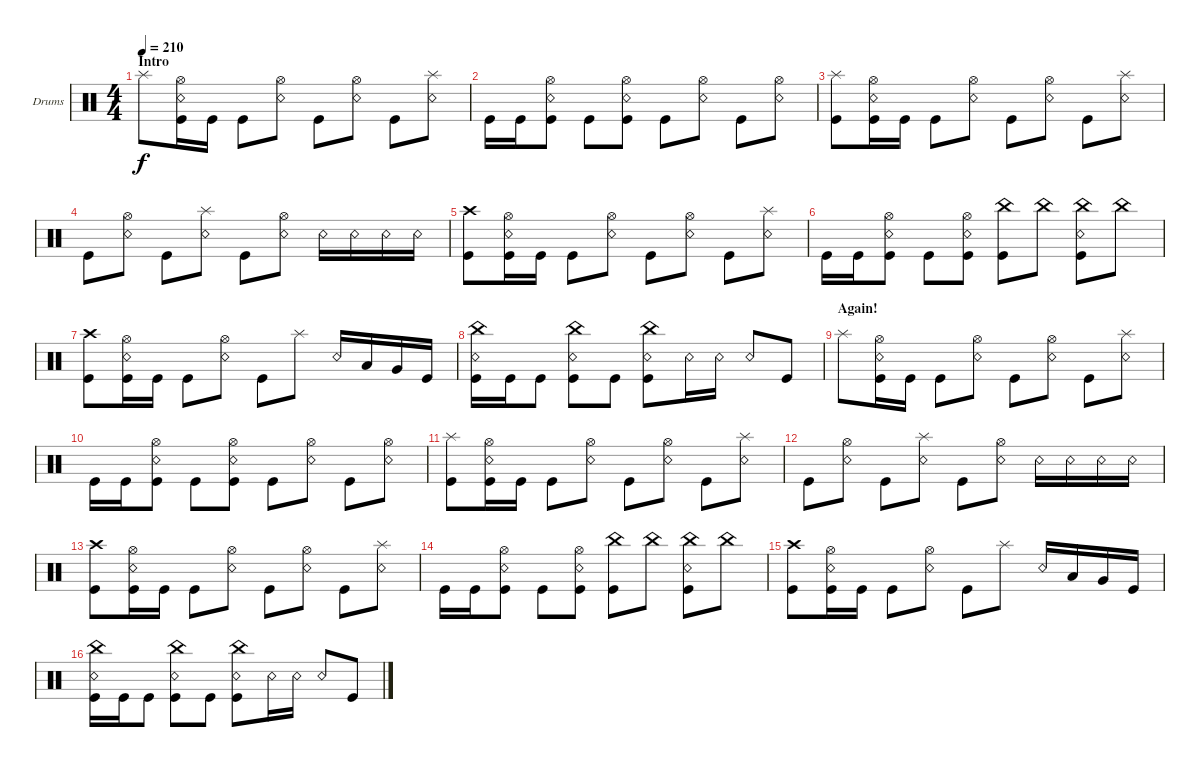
\defaultSystemsLayout 4
\bracketExtendMode groupsimilarinstruments
\firstSystemTrackNameOrientation horizontal
\otherSystemsTrackNameOrientation horizontal
\track ("Drums" "Drums") {instrument percussion}
\staff {score}
\articulation defaults
\ts (4 4)
\section ("" "Intro")
\tempo 210
\clef neutral
\scale
0.474178
\ks c "Splash (hit)".8{dy f}
("Hi-Hat (open)" "Snare (rim shot)" "Kick (hit)").16 "Kick (hit)".16 "Kick (hit)".8 ("Hi-Hat (open)" "Snare (rim shot)").8 "Kick (hit)".8 ("Hi-Hat (open)" "Snare (rim shot)").8 "Kick (hit)".8 ("Splash (hit)" "Snare (rim shot)").8 |
\scale
0.262911 "Kick (hit)".16 "Kick (hit)".16 ("Hi-Hat (open)" "Snare (rim shot)" "Kick (hit)").8 "Kick (hit)".8 ("Hi-Hat (open)" "Snare (rim shot)" "Kick (hit)").8 "Kick (hit)".8 ("Hi-Hat (open)" "Snare (rim shot)").8 "Kick (hit)".8 ("Hi-Hat (open)" "Snare (rim shot)").8 |
\scale
0.262911 ("Kick (hit)" "Splash (hit)").8 ("Hi-Hat (open)" "Snare (rim shot)" "Kick (hit)").16 "Kick (hit)".16 "Kick (hit)".8 ("Hi-Hat (open)" "Snare (rim shot)").8 "Kick (hit)".8 ("Hi-Hat (open)" "Snare (rim shot)").8 "Kick (hit)".8 ("Snare (rim shot)" "Splash (hit)").8 |
\scale
0.333333 "Kick (hit)".8 ("Hi-Hat (open)" "Snare (rim shot)").8 "Kick (hit)".8 ("Snare (rim shot)" "Splash (hit)").8 "Kick (hit)".8 ("Hi-Hat (open)" "Snare (rim shot)").8 "Snare (rim shot)".16 "Snare (rim shot)".16 "Snare (rim shot)".16 "Snare (rim shot)".16 |
\scale
0.333333 ("Kick (hit)" "Crash high (hit)").8 ("Hi-Hat (open)" "Snare (rim shot)" "Kick (hit)").16 "Kick (hit)".16 "Kick (hit)".8 ("Hi-Hat (open)" "Snare (rim shot)").8 "Kick (hit)".8 ("Hi-Hat (open)" "Snare (rim shot)").8 "Kick (hit)".8 ("Snare (rim shot)" "Splash (hit)").8 |
\scale
0.333333 "Kick (hit)".16 "Kick (hit)".16 ("Hi-Hat (open)" "Snare (rim shot)" "Kick (hit)").8 "Kick (hit)".8 ("Hi-Hat (open)" "Snare (rim shot)" "Kick (hit)").8 ("Kick (hit)" "China (hit)").8 "China (hit)".8 ("Kick (hit)" "China (hit)" "Snare (rim shot)").8 "China (hit)".8 |
\scale
0.333333 ("Kick (hit)" "Crash high (hit)").8 ("Hi-Hat (open)" "Snare (rim shot)" "Kick (hit)").16 "Kick (hit)".16 "Kick (hit)".8 ("Hi-Hat (open)" "Snare (rim shot)").8 "Kick (hit)".8 "Splash (hit)".8 "Snare (rim shot)".16 "Low Tom (hit)".16 "Very Low Tom (hit)".16 "Kick (hit)".16 |
\scale
0.333333 ("Kick (hit)" "China (hit)" "Snare (rim shot)").16 "Kick (hit)".16 "Kick (hit)".8 ("Kick (hit)" "China (hit)" "Snare (rim shot)").8 "Kick (hit)".8 ("Kick (hit)" "China (hit)" "Snare (rim shot)").8 "Snare (rim shot)".16 "Snare (rim shot)".16 "Snare (rim shot)".8 "Kick (hit)".8 |
\section ("" "Again!")
\scale
0.333333 "Splash (hit)".8 ("Hi-Hat (open)" "Snare (rim shot)" "Kick (hit)").16 "Kick (hit)".16 "Kick (hit)".8 ("Hi-Hat (open)" "Snare (rim shot)").8 "Kick (hit)".8 ("Hi-Hat (open)" "Snare (rim shot)").8 "Kick (hit)".8 ("Splash (hit)" "Snare (rim shot)").8 |
\scale
0.333333 "Kick (hit)".16 "Kick (hit)".16 ("Hi-Hat (open)" "Snare (rim shot)" "Kick (hit)").8 "Kick (hit)".8 ("Hi-Hat (open)" "Snare (rim shot)" "Kick (hit)").8 "Kick (hit)".8 ("Hi-Hat (open)" "Snare (rim shot)").8 "Kick (hit)".8 ("Hi-Hat (open)" "Snare (rim shot)").8 |
\scale
0.333333 ("Kick (hit)" "Splash (hit)").8 ("Hi-Hat (open)" "Snare (rim shot)" "Kick (hit)").16 "Kick (hit)".16 "Kick (hit)".8 ("Hi-Hat (open)" "Snare (rim shot)").8 "Kick (hit)".8 ("Hi-Hat (open)" "Snare (rim shot)").8 "Kick (hit)".8 ("Snare (rim shot)" "Splash (hit)").8 |
\scale
0.333333 "Kick (hit)".8 ("Hi-Hat (open)" "Snare (rim shot)").8 "Kick (hit)".8 ("Snare (rim shot)" "Splash (hit)").8 "Kick (hit)".8 ("Hi-Hat (open)" "Snare (rim shot)").8 "Snare (rim shot)".16 "Snare (rim shot)".16 "Snare (rim shot)".16 "Snare (rim shot)".16 |
\scale
0.333333 ("Kick (hit)" "Crash high (hit)").8 ("Hi-Hat (open)" "Snare (rim shot)" "Kick (hit)").16 "Kick (hit)".16 "Kick (hit)".8 ("Hi-Hat (open)" "Snare (rim shot)").8 "Kick (hit)".8 ("Hi-Hat (open)" "Snare (rim shot)").8 "Kick (hit)".8 ("Snare (rim shot)" "Splash (hit)").8 |
\scale
0.333333 "Kick (hit)".16 "Kick (hit)".16 ("Hi-Hat (open)" "Snare (rim shot)" "Kick (hit)").8 "Kick (hit)".8 ("Hi-Hat (open)" "Snare (rim shot)" "Kick (hit)").8 ("Kick (hit)" "China (hit)").8 "China (hit)".8 ("Kick (hit)" "China (hit)" "Snare (rim shot)").8 "China (hit)".8 |
\scale
0.333333 ("Kick (hit)" "Crash high (hit)").8 ("Hi-Hat (open)" "Snare (rim shot)" "Kick (hit)").16 "Kick (hit)".16 "Kick (hit)".8 ("Hi-Hat (open)" "Snare (rim shot)").8 "Kick (hit)".8 "Splash (hit)".8 "Snare (rim shot)".16 "Low Tom (hit)".16 "Very Low Tom (hit)".16 "Kick (hit)".16 |
("Kick (hit)" "China (hit)" "Snare (rim shot)").16 "Kick (hit)".16 "Kick (hit)".8 ("Kick (hit)" "China (hit)" "Snare (rim shot)").8 "Kick (hit)".8 ("Kick (hit)" "China (hit)" "Snare (rim shot)").8 "Snare (rim shot)".16 "Snare (rim shot)".16 "Snare (rim shot)".8 "Kick (hit)".8
